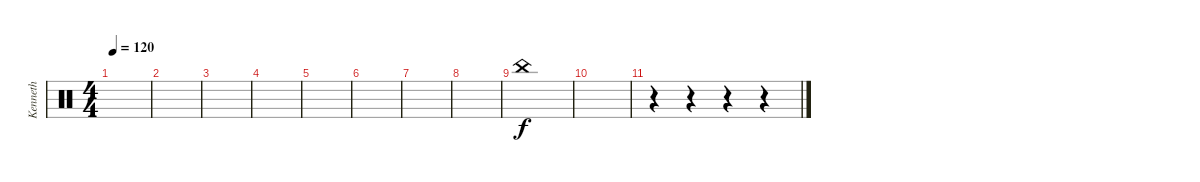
\track ("Kenneth" "Kenneth") {instrument percussion}
\staff {score}
\articulation defaults
\ts (4 4)
\tempo 120
\clef neutral
\ks c
|
|
|
|
|
|
|
|
"China (hit)".1 |
|
r.4 r.4 r.4 r.4
